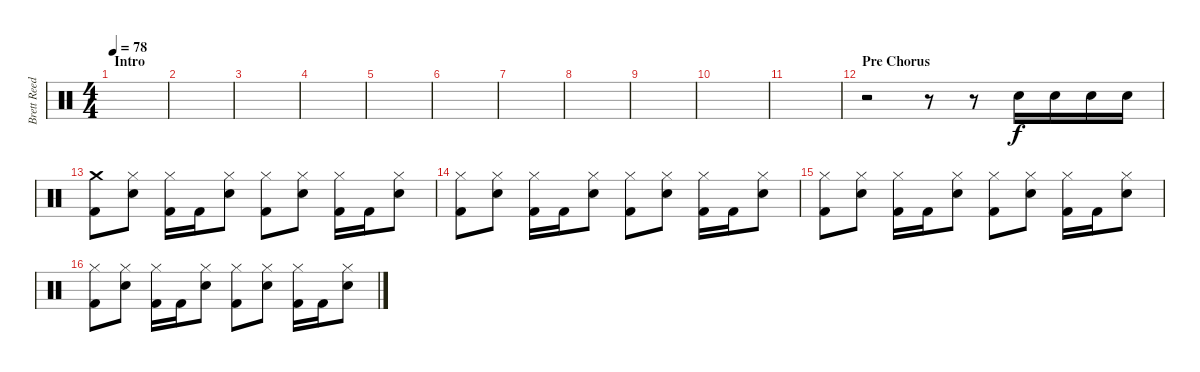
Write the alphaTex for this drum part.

\track ("Brett Reed" "Brett Reed") {instrument percussion}
\staff {score}
\articulation defaults
\ts (4 4)
\section ("" "Intro")
\tempo 78
\clef neutral
\ks c
|
|
|
|
|
|
|
|
|
|
|
\section ("" "Pre Chorus")
r.2 r.8 r.8 "Snare (hit) 2".16 "Snare (hit) 2".16 "Snare (hit) 2".16 "Snare (hit) 2".16 |
("Crash medium (hit)" "Kick (hit) 2").8 ("Hi-Hat (closed)" "Electric Snare (hit)").8 ("Hi-Hat (closed)" "Kick (hit) 2").16 "Kick (hit) 2".16 ("Hi-Hat (closed)" "Electric Snare (hit)").8 ("Hi-Hat (closed)" "Kick (hit) 2").8 ("Hi-Hat (closed)" "Electric Snare (hit)").8 ("Hi-Hat (closed)" "Kick (hit) 2").16 "Kick (hit) 2".16 ("Hi-Hat (closed)" "Electric Snare (hit)").8 |
("Hi-Hat (closed)" "Kick (hit) 2").8 ("Hi-Hat (closed)" "Electric Snare (hit)").8 ("Hi-Hat (closed)" "Kick (hit) 2").16 "Kick (hit) 2".16 ("Hi-Hat (closed)" "Electric Snare (hit)").8 ("Hi-Hat (closed)" "Kick (hit) 2").8 ("Hi-Hat (closed)" "Electric Snare (hit)").8 ("Hi-Hat (closed)" "Kick (hit) 2").16 "Kick (hit) 2".16 ("Hi-Hat (closed)" "Electric Snare (hit)").8 |
("Hi-Hat (closed)" "Kick (hit) 2").8 ("Hi-Hat (closed)" "Electric Snare (hit)").8 ("Hi-Hat (closed)" "Kick (hit) 2").16 "Kick (hit) 2".16 ("Hi-Hat (closed)" "Electric Snare (hit)").8 ("Hi-Hat (closed)" "Kick (hit) 2").8 ("Hi-Hat (closed)" "Electric Snare (hit)").8 ("Hi-Hat (closed)" "Kick (hit) 2").16 "Kick (hit) 2".16 ("Hi-Hat (closed)" "Electric Snare (hit)").8 |
("Hi-Hat (closed)" "Kick (hit) 2").8 ("Hi-Hat (closed)" "Electric Snare (hit)").8 ("Hi-Hat (closed)" "Kick (hit) 2").16 "Kick (hit) 2".16 ("Hi-Hat (closed)" "Electric Snare (hit)").8 ("Hi-Hat (closed)" "Kick (hit) 2").8 ("Hi-Hat (closed)" "Electric Snare (hit)").8 ("Hi-Hat (closed)" "Kick (hit) 2").16 "Kick (hit) 2".16 ("Hi-Hat (closed)" "Electric Snare (hit)").8
